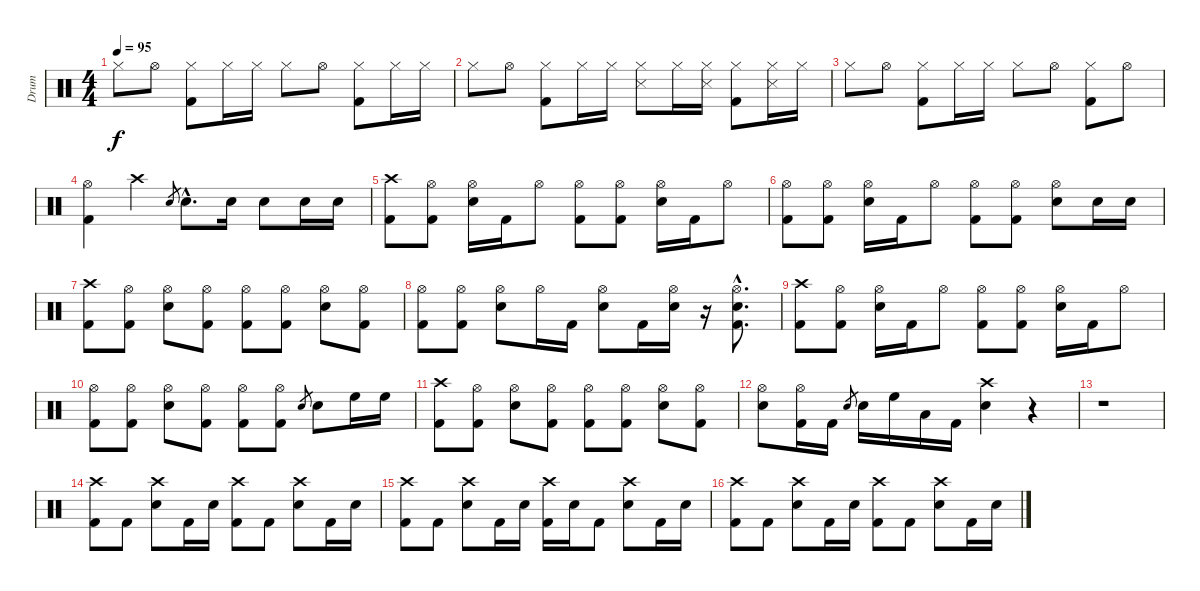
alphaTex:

\track ("Drum" "Drum") {instrument percussion}
\staff {score}
\articulation defaults
\ts (4 4)
\tempo 95
\clef neutral
\ks c "Hi-Hat (closed)".8{dy f} "Hi-Hat (open)".8
("Hi-Hat (closed)" "Kick (hit) 2").8 "Hi-Hat (closed)".16 "Hi-Hat (closed)".16 "Hi-Hat (closed)".8 "Hi-Hat (open)".8 ("Hi-Hat (closed)" "Kick (hit) 2").8 "Hi-Hat (closed)".16 "Hi-Hat (closed)".16 |
"Hi-Hat (closed)".8 "Hi-Hat (open)".8 ("Hi-Hat (closed)" "Kick (hit) 2").8 "Hi-Hat (closed)".16 "Hi-Hat (closed)".16 ("Hi-Hat (closed)" "Snare (side stick) 3").8 "Hi-Hat (closed)".16 ("Hi-Hat (closed)" "Snare (side stick) 3").16 ("Hi-Hat (closed)" "Kick (hit) 2").8 ("Hi-Hat (closed)" "Snare (side stick) 3").16 "Hi-Hat (closed)".16 |
"Hi-Hat (closed)".8 "Hi-Hat (open)".8 ("Hi-Hat (closed)" "Kick (hit) 2").8 "Hi-Hat (closed)".16 "Hi-Hat (closed)".16 "Hi-Hat (closed)".8 "Hi-Hat (open)".8 ("Hi-Hat (closed)" "Kick (hit) 2").8 "Hi-Hat (open)".8 |
("Hi-Hat (open)" "Kick (hit) 2").4 "Crash high (hit)".4 "Electric Snare (hit)".8{gr} "Electric Snare (hit)"{hac}.8{d} "Electric Snare (hit)".16 "Electric Snare (hit)".8 "Electric Snare (hit)".16 "Electric Snare (hit)".16 |
("Crash high (hit)" "Kick (hit) 2").8 ("Hi-Hat (open)" "Kick (hit) 2").8 ("Hi-Hat (open)" "Electric Snare (hit)").16 "Kick (hit) 2".16 "Hi-Hat (open)".8 ("Hi-Hat (open)" "Kick (hit) 2").8 ("Hi-Hat (open)" "Kick (hit) 2").8 ("Hi-Hat (open)" "Electric Snare (hit)").16 "Kick (hit) 2".16 "Hi-Hat (open)".8 |
("Hi-Hat (open)" "Kick (hit) 2").8 ("Hi-Hat (open)" "Kick (hit) 2").8 ("Hi-Hat (open)" "Electric Snare (hit)").16 "Kick (hit) 2".16 "Hi-Hat (open)".8 ("Hi-Hat (open)" "Kick (hit) 2").8 ("Hi-Hat (open)" "Kick (hit) 2").8 ("Hi-Hat (open)" "Electric Snare (hit)").8 "Electric Snare (hit)".16 "Electric Snare (hit)".16 |
("Crash high (hit)" "Kick (hit) 2").8 ("Hi-Hat (open)" "Kick (hit) 2").8 ("Hi-Hat (open)" "Electric Snare (hit)").8 ("Hi-Hat (open)" "Kick (hit) 2").8 ("Hi-Hat (open)" "Kick (hit) 2").8 ("Hi-Hat (open)" "Kick (hit) 2").8 ("Hi-Hat (open)" "Electric Snare (hit)").8 ("Hi-Hat (open)" "Kick (hit) 2").8 |
("Hi-Hat (open)" "Kick (hit) 2").8 ("Hi-Hat (open)" "Kick (hit) 2").8 ("Hi-Hat (open)" "Electric Snare (hit)").8 "Hi-Hat (open)".16 "Kick (hit) 2".16 ("Hi-Hat (open)" "Electric Snare (hit)").8 "Kick (hit) 2".16 ("Hi-Hat (open)" "Electric Snare (hit)").16 r.16 ("Hi-Hat (open)"{hac} "Electric Snare (hit)"{hac} "Kick (hit) 2"{hac}).8{d} |
("Crash high (hit)" "Kick (hit) 2").8 ("Hi-Hat (open)" "Kick (hit) 2").8 ("Hi-Hat (open)" "Electric Snare (hit)").16 "Kick (hit) 2".16 "Hi-Hat (open)".8 ("Hi-Hat (open)" "Kick (hit) 2").8 ("Hi-Hat (open)" "Kick (hit) 2").8 ("Hi-Hat (open)" "Electric Snare (hit)").16 "Kick (hit) 2".16 "Hi-Hat (open)".8 |
("Hi-Hat (open)" "Kick (hit) 2").8 ("Hi-Hat (open)" "Kick (hit) 2").8 ("Hi-Hat (open)" "Electric Snare (hit)").8 ("Hi-Hat (open)" "Kick (hit) 2").8 ("Hi-Hat (open)" "Kick (hit) 2").8 ("Hi-Hat (open)" "Kick (hit) 2").8 "Electric Snare (hit)".8{gr} "Electric Snare (hit)".8 "High Floor Tom (hit)".16 "High Floor Tom (hit)".16 |
("Crash high (hit)" "Kick (hit) 2").8 ("Hi-Hat (open)" "Kick (hit) 2").8 ("Hi-Hat (open)" "Electric Snare (hit)").8 ("Hi-Hat (open)" "Kick (hit) 2").8 ("Hi-Hat (open)" "Kick (hit) 2").8 ("Hi-Hat (open)" "Kick (hit) 2").8 ("Hi-Hat (open)" "Electric Snare (hit)").8 ("Hi-Hat (open)" "Kick (hit) 2").8 |
("Hi-Hat (open)" "Electric Snare (hit)").8 ("Hi-Hat (open)" "Kick (hit) 2").16 "Kick (hit) 2".16 "Electric Snare (hit)".8{gr} "Electric Snare (hit)".16 "High Floor Tom (hit)".16 "Low Tom (hit)".16 "Kick (hit) 2".16 ("Crash high (hit)" "Electric Snare (hit)").4 r.4 |
r.1 |
("Crash high (hit)" "Kick (hit) 2").8 "Kick (hit) 2".8 ("Crash high (hit)" "Electric Snare (hit)").8 "Kick (hit) 2".16 "Electric Snare (hit)".16 ("Crash high (hit)" "Kick (hit) 2").8 "Kick (hit) 2".8 ("Crash high (hit)" "Electric Snare (hit)").8 "Kick (hit) 2".16 "Electric Snare (hit)".16 |
("Crash high (hit)" "Kick (hit) 2").8 "Kick (hit) 2".8 ("Crash high (hit)" "Electric Snare (hit)").8 "Kick (hit) 2".16 "Electric Snare (hit)".16 ("Crash high (hit)" "Kick (hit) 2").16 "Electric Snare (hit)".16 "Kick (hit) 2".8 ("Crash high (hit)" "Electric Snare (hit)").8 "Kick (hit) 2".16 "Electric Snare (hit)".16 |
("Crash high (hit)" "Kick (hit) 2").8 "Kick (hit) 2".8 ("Crash high (hit)" "Electric Snare (hit)").8 "Kick (hit) 2".16 "Electric Snare (hit)".16 ("Crash high (hit)" "Kick (hit) 2").8 "Kick (hit) 2".8 ("Crash high (hit)" "Electric Snare (hit)").8 "Kick (hit) 2".16 "Electric Snare (hit)".16
